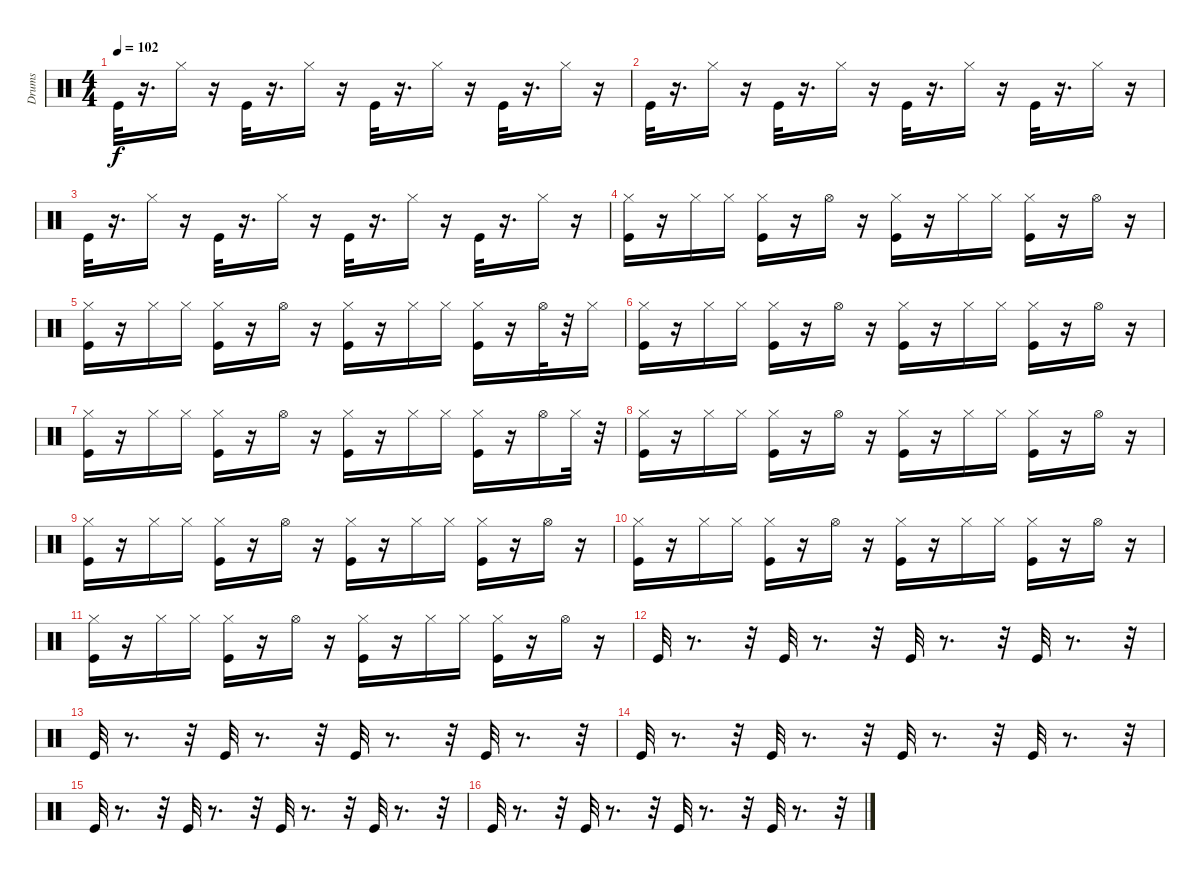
\track ("Drums" "Drums") {instrument percussion}
\staff {score}
\articulation defaults
\ts (4 4)
\tempo 102
\clef neutral
\ks c "Kick (hit)".32{dy f}
r.16{d} "Hi-Hat (closed)".16 r.16 "Kick (hit)".32 r.16{d} "Hi-Hat (closed)".16 r.16 "Kick (hit)".32 r.16{d} "Hi-Hat (closed)".16 r.16 "Kick (hit)".32 r.16{d} "Hi-Hat (closed)".16 r.16 |
"Kick (hit)".32 r.16{d} "Hi-Hat (closed)".16 r.16 "Kick (hit)".32 r.16{d} "Hi-Hat (closed)".16 r.16 "Kick (hit)".32 r.16{d} "Hi-Hat (closed)".16 r.16 "Kick (hit)".32 r.16{d} "Hi-Hat (closed)".16 r.16 |
"Kick (hit)".32 r.16{d} "Hi-Hat (closed)".16 r.16 "Kick (hit)".32 r.16{d} "Hi-Hat (closed)".16 r.16 "Kick (hit)".32 r.16{d} "Hi-Hat (closed)".16 r.16 "Kick (hit)".32 r.16{d} "Hi-Hat (closed)".16 r.16 |
("Hi-Hat (closed)" "Kick (hit)").16 r.16 "Hi-Hat (closed)".16 "Hi-Hat (closed)".16 ("Hi-Hat (closed)" "Kick (hit)").16 r.16 "Hi-Hat (open)".16 r.16 ("Hi-Hat (closed)" "Kick (hit)").16 r.16 "Hi-Hat (closed)".16 "Hi-Hat (closed)".16 ("Hi-Hat (closed)" "Kick (hit)").16 r.16 "Hi-Hat (open)".16 r.16 |
("Hi-Hat (closed)" "Kick (hit)").16 r.16 "Hi-Hat (closed)".16 "Hi-Hat (closed)".16 ("Hi-Hat (closed)" "Kick (hit)").16 r.16 "Hi-Hat (open)".16 r.16 ("Hi-Hat (closed)" "Kick (hit)").16 r.16 "Hi-Hat (closed)".16 "Hi-Hat (closed)".16 ("Hi-Hat (closed)" "Kick (hit)").16 r.16 "Hi-Hat (open)".32 r.32 "Hi-Hat (closed)".16 |
("Hi-Hat (closed)" "Kick (hit)").16 r.16 "Hi-Hat (closed)".16 "Hi-Hat (closed)".16 ("Hi-Hat (closed)" "Kick (hit)").16 r.16 "Hi-Hat (open)".16 r.16 ("Hi-Hat (closed)" "Kick (hit)").16 r.16 "Hi-Hat (closed)".16 "Hi-Hat (closed)".16 ("Hi-Hat (closed)" "Kick (hit)").16 r.16 "Hi-Hat (open)".16 r.16 |
("Hi-Hat (closed)" "Kick (hit)").16 r.16 "Hi-Hat (closed)".16 "Hi-Hat (closed)".16 ("Hi-Hat (closed)" "Kick (hit)").16 r.16 "Hi-Hat (open)".16 r.16 ("Hi-Hat (closed)" "Kick (hit)").16 r.16 "Hi-Hat (closed)".16 "Hi-Hat (closed)".16 ("Hi-Hat (closed)" "Kick (hit)").16 r.16 "Hi-Hat (open)".16 "Hi-Hat (closed)".32 r.32 |
("Hi-Hat (closed)" "Kick (hit)").16 r.16 "Hi-Hat (closed)".16 "Hi-Hat (closed)".16 ("Hi-Hat (closed)" "Kick (hit)").16 r.16 "Hi-Hat (open)".16 r.16 ("Hi-Hat (closed)" "Kick (hit)").16 r.16 "Hi-Hat (closed)".16 "Hi-Hat (closed)".16 ("Hi-Hat (closed)" "Kick (hit)").16 r.16 "Hi-Hat (open)".16 r.16 |
("Hi-Hat (closed)" "Kick (hit)").16 r.16 "Hi-Hat (closed)".16 "Hi-Hat (closed)".16 ("Hi-Hat (closed)" "Kick (hit)").16 r.16 "Hi-Hat (open)".16 r.16 ("Hi-Hat (closed)" "Kick (hit)").16 r.16 "Hi-Hat (closed)".16 "Hi-Hat (closed)".16 ("Hi-Hat (closed)" "Kick (hit)").16 r.16 "Hi-Hat (open)".16 r.16 |
("Hi-Hat (closed)" "Kick (hit)").16 r.16 "Hi-Hat (closed)".16 "Hi-Hat (closed)".16 ("Hi-Hat (closed)" "Kick (hit)").16 r.16 "Hi-Hat (open)".16 r.16 ("Hi-Hat (closed)" "Kick (hit)").16 r.16 "Hi-Hat (closed)".16 "Hi-Hat (closed)".16 ("Hi-Hat (closed)" "Kick (hit)").16 r.16 "Hi-Hat (open)".16 r.16 |
("Hi-Hat (closed)" "Kick (hit)").16 r.16 "Hi-Hat (closed)".16 "Hi-Hat (closed)".16 ("Hi-Hat (closed)" "Kick (hit)").16 r.16 "Hi-Hat (open)".16 r.16 ("Hi-Hat (closed)" "Kick (hit)").16 r.16 "Hi-Hat (closed)".16 "Hi-Hat (closed)".16 ("Hi-Hat (closed)" "Kick (hit)").16 r.16 "Hi-Hat (open)".16 r.16 |
"Kick (hit)".32 r.8{d} r.32 "Kick (hit)".32 r.8{d} r.32 "Kick (hit)".32 r.8{d} r.32 "Kick (hit)".32 r.8{d} r.32 |
"Kick (hit)".32 r.8{d} r.32 "Kick (hit)".32 r.8{d} r.32 "Kick (hit)".32 r.8{d} r.32 "Kick (hit)".32 r.8{d} r.32 |
"Kick (hit)".32 r.8{d} r.32 "Kick (hit)".32 r.8{d} r.32 "Kick (hit)".32 r.8{d} r.32 "Kick (hit)".32 r.8{d} r.32 |
"Kick (hit)".32 r.8{d} r.32 "Kick (hit)".32 r.8{d} r.32 "Kick (hit)".32 r.8{d} r.32 "Kick (hit)".32 r.8{d} r.32 |
"Kick (hit)".32 r.8{d} r.32 "Kick (hit)".32 r.8{d} r.32 "Kick (hit)".32 r.8{d} r.32 "Kick (hit)".32 r.8{d} r.32
